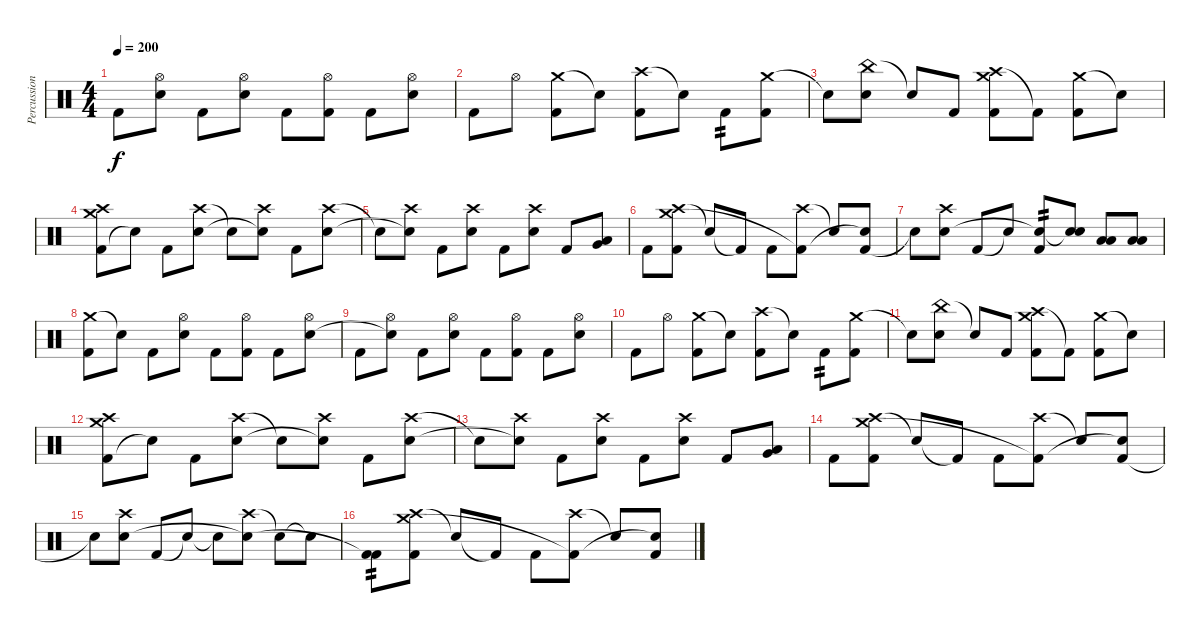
\track ("Percussion" "Percussion") {instrument percussion}
\staff {score}
\articulation defaults
\ts (4 4)
\tempo 200
\clef neutral
\ks c "Kick (hit) 2".8{dy f}
("Hi-Hat (open)" "Snare (hit)"{t}).8 "Kick (hit) 2".8 ("Hi-Hat (open)" "Snare (hit) 2").8 "Kick (hit) 2".8 ("Hi-Hat (open)" "Kick (hit) 2").8 "Kick (hit) 2".8 ("Hi-Hat (open)" "Snare (hit) 2").8 |
"Kick (hit) 2".8 "Hi-Hat (open)".8 ("Crash medium (hit)" "Kick (hit) 2").8 "Snare (hit)"{t}.8 ("Crash high (hit)" "Kick (hit) 2").8 "Snare (hit)"{t}.8 "Kick (hit) 2".8{tp 2} ("Crash medium (hit)" "Kick (hit) 2").8 |
"Snare (hit)"{t}.8 ("China (hit)" "Snare (hit) 2").8 "Snare (hit)"{t}.8 "Kick (hit) 2".8 ("Crash high (hit)" "Crash medium (hit)" "Kick (hit) 2").8 "Kick (hit) 2"{t}.8 ("Crash medium (hit)" "Kick (hit) 2").8 "Snare (hit)"{t}.8 |
("Kick (hit) 2" "Crash high (hit)" "Crash medium (hit)").8 "Snare (hit)"{t}.8 "Kick (hit) 2".8 ("Crash high (hit)" "Snare (hit) 2").8 "Snare (hit)"{t}.8 ("Crash high (hit)" "Snare (hit)"{t}).8 "Kick (hit) 2".8 ("Crash high (hit)" "Snare (hit) 2").8 |
"Snare (hit)"{t}.8 ("Crash high (hit)" "Snare (hit)"{t}).8 "Kick (hit) 2".8 ("Crash high (hit)" "Snare (hit) 2").8 "Kick (hit) 2".8 ("Crash high (hit)" "Snare (hit) 2").8 "Kick (hit) 2".8 ("Very Low Tom (hit)" "Low Floor Tom (hit)").8 |
"Kick (hit) 2".8 ("Crash high (hit)" "Crash medium (hit)" "Kick (hit) 2").8 "Snare (hit)"{t}.8 "Kick (hit) 2"{t}.8 "Kick (hit) 2".8 ("Crash high (hit)" "Kick (hit) 2"{t}).8 "Snare (hit)"{t}.8 ("Kick (hit) 2" "Snare (hit)"{t}).8 |
"Snare (hit)"{t}.8 ("Crash high (hit)" "Snare (hit) 2").8 "Kick (hit) 2".8 "Snare (hit)"{t}.8 ("Kick (hit) 2" "Snare (hit)"{t}).8{tp 2} ("Snare (hit) 2" "Snare (hit)"{t}).8 ("Low Tom (hit)" "Low Floor Tom (hit)").8 ("Low Tom (hit)" "Low Floor Tom (hit)").8 |
("Crash medium (hit)" "Kick (hit) 2").8 "Snare (hit)"{t}.8 "Kick (hit) 2".8 ("Hi-Hat (open)" "Snare (hit) 2").8 "Kick (hit) 2".8 ("Hi-Hat (open)" "Kick (hit) 2").8 "Kick (hit) 2".8 ("Hi-Hat (open)" "Snare (hit) 2").8 |
"Kick (hit) 2".8 ("Hi-Hat (open)" "Snare (hit)"{t}).8 "Kick (hit) 2".8 ("Hi-Hat (open)" "Snare (hit) 2").8 "Kick (hit) 2".8 ("Hi-Hat (open)" "Kick (hit) 2").8 "Kick (hit) 2".8 ("Hi-Hat (open)" "Snare (hit) 2").8 |
"Kick (hit) 2".8 "Hi-Hat (open)".8 ("Crash medium (hit)" "Kick (hit) 2").8 "Snare (hit)"{t}.8 ("Crash high (hit)" "Kick (hit) 2").8 "Snare (hit)"{t}.8 "Kick (hit) 2".8{tp 2} ("Crash medium (hit)" "Kick (hit) 2").8 |
"Snare (hit)"{t}.8 ("China (hit)" "Snare (hit) 2").8 "Snare (hit)"{t}.8 "Kick (hit) 2".8 ("Crash high (hit)" "Crash medium (hit)" "Kick (hit) 2").8 "Kick (hit) 2"{t}.8 ("Crash medium (hit)" "Kick (hit) 2").8 "Snare (hit)"{t}.8 |
("Kick (hit) 2" "Crash high (hit)" "Crash medium (hit)").8 "Snare (hit)"{t}.8 "Kick (hit) 2".8 ("Crash high (hit)" "Snare (hit) 2").8 "Snare (hit)"{t}.8 ("Crash high (hit)" "Snare (hit)"{t}).8 "Kick (hit) 2".8 ("Crash high (hit)" "Snare (hit) 2").8 |
"Snare (hit)"{t}.8 ("Crash high (hit)" "Snare (hit)"{t}).8 "Kick (hit) 2".8 ("Crash high (hit)" "Snare (hit) 2").8 "Kick (hit) 2".8 ("Crash high (hit)" "Snare (hit) 2").8 "Kick (hit) 2".8 ("Very Low Tom (hit)" "Low Floor Tom (hit)").8 |
"Kick (hit) 2".8 ("Crash high (hit)" "Crash medium (hit)" "Kick (hit) 2").8 "Snare (hit)"{t}.8 "Kick (hit) 2"{t}.8 "Kick (hit) 2".8 ("Crash high (hit)" "Kick (hit) 2"{t}).8 "Snare (hit)"{t}.8 ("Kick (hit) 2" "Snare (hit)"{t}).8 |
"Snare (hit)"{t}.8 ("Crash high (hit)" "Snare (hit) 2").8 "Kick (hit) 2".8 "Snare (hit)"{t}.8 "Snare (hit)"{t}.8 ("Crash high (hit)" "Snare (hit)"{t}).8 "Snare (hit)"{t}.8 "Snare (hit)"{t}.8 |
("Kick (hit) 2" "Kick (hit) 2"{t}).8{tp 2} ("Crash high (hit)" "Crash medium (hit)" "Kick (hit) 2").8 "Snare (hit)"{t}.8 "Kick (hit) 2"{t}.8 "Kick (hit) 2".8 ("Crash high (hit)" "Kick (hit) 2"{t}).8 "Snare (hit)"{t}.8 ("Kick (hit) 2" "Snare (hit)"{t}).8
